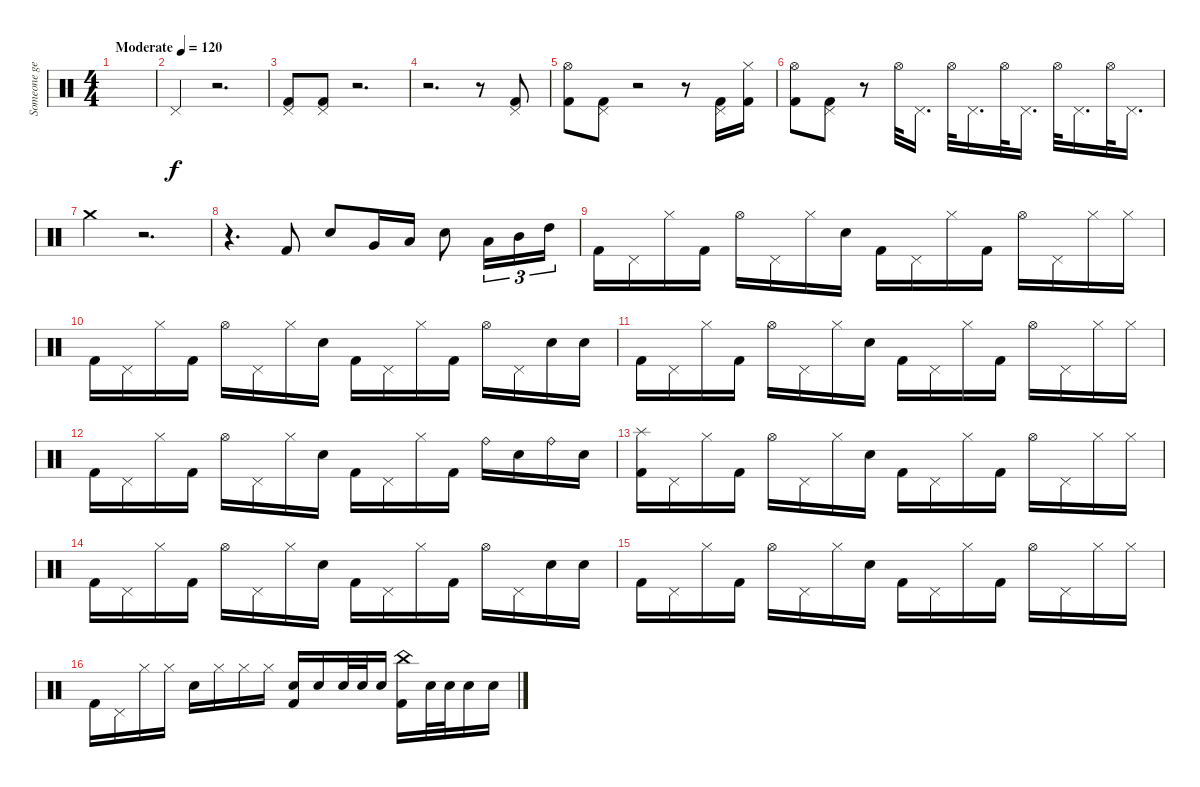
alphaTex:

\track ("Someone get me Neil Peart" "Someone ge") {instrument percussion}
\staff {score}
\articulation defaults
\ts (4 4)
\tempo (120 "Moderate")
\clef neutral
\ks c
|
"Pedal Hi-Hat (hit)".4 r.2{d} |
("Pedal Hi-Hat (hit)" "Kick (hit) 2").8 ("Pedal Hi-Hat (hit)" "Kick (hit) 2").8 r.2{d} |
r.2{d} r.8 ("Pedal Hi-Hat (hit)" "Kick (hit) 2").8 |
("Hi-Hat (open)" "Kick (hit) 2").8 ("Pedal Hi-Hat (hit)" "Kick (hit) 2").8 r.2 r.8 ("Pedal Hi-Hat (hit)" "Kick (hit) 2").16 ("Hi-Hat (closed)" "Kick (hit) 2").16 |
("Hi-Hat (open)" "Kick (hit) 2").8 ("Pedal Hi-Hat (hit)" "Kick (hit) 2").8 r.8 "Hi-Hat (open)".32 "Pedal Hi-Hat (hit)".16{d} "Hi-Hat (open)".32 "Pedal Hi-Hat (hit)".16{d} "Hi-Hat (open)".32 "Pedal Hi-Hat (hit)".16{d} "Hi-Hat (open)".32 "Pedal Hi-Hat (hit)".16{d} "Hi-Hat (open)".32 "Pedal Hi-Hat (hit)".16{d} |
"Crash medium (hit)".4 r.2{d} |
r.4{d} "Kick (hit) 2".8 "Snare (hit) 2".8 "Very Low Tom (hit)".16 "Low Tom (hit)".16 "Snare (hit) 2".8 "Low Tom (hit)".16{tu (3 2)} "Mid Tom (hit)".16{tu (3 2)} "High Tom (hit)".16{tu (3 2)} |
"Kick (hit) 2".16 "Pedal Hi-Hat (hit)".16 "Hi-Hat (closed)".16 "Kick (hit) 2".16 "Hi-Hat (open)".16 "Pedal Hi-Hat (hit)".16 "Hi-Hat (closed)".16 "Snare (hit) 2".16 "Kick (hit) 2".16 "Pedal Hi-Hat (hit)".16 "Hi-Hat (closed)".16 "Kick (hit) 2".16 "Hi-Hat (open)".16 "Pedal Hi-Hat (hit)".16 "Hi-Hat (closed)".16 "Hi-Hat (closed)".16 |
"Kick (hit) 2".16 "Pedal Hi-Hat (hit)".16 "Hi-Hat (closed)".16 "Kick (hit) 2".16 "Hi-Hat (open)".16 "Pedal Hi-Hat (hit)".16 "Hi-Hat (closed)".16 "Snare (hit) 2".16 "Kick (hit) 2".16 "Pedal Hi-Hat (hit)".16 "Hi-Hat (closed)".16 "Kick (hit) 2".16 "Hi-Hat (open)".16 "Pedal Hi-Hat (hit)".16 "Snare (hit) 2".16 "Snare (hit) 2".16 |
"Kick (hit) 2".16 "Pedal Hi-Hat (hit)".16 "Hi-Hat (closed)".16 "Kick (hit) 2".16 "Hi-Hat (open)".16 "Pedal Hi-Hat (hit)".16 "Hi-Hat (closed)".16 "Snare (hit) 2".16 "Kick (hit) 2".16 "Pedal Hi-Hat (hit)".16 "Hi-Hat (closed)".16 "Kick (hit) 2".16 "Hi-Hat (open)".16 "Pedal Hi-Hat (hit)".16 "Hi-Hat (closed)".16 "Hi-Hat (closed)".16 |
"Kick (hit) 2".16 "Pedal Hi-Hat (hit)".16 "Hi-Hat (closed)".16 "Kick (hit) 2".16 "Hi-Hat (open)".16 "Pedal Hi-Hat (hit)".16 "Hi-Hat (closed)".16 "Snare (hit) 2".16 "Kick (hit) 2".16 "Pedal Hi-Hat (hit)".16 "Hi-Hat (closed)".16 "Kick (hit) 2".16 "Ride (bell)".16 "Snare (hit) 2".16 "Ride (bell)".16 "Snare (hit) 2".16 |
("Splash (hit)" "Kick (hit) 2").16 "Pedal Hi-Hat (hit)".16 "Hi-Hat (closed)".16 "Kick (hit) 2".16 "Hi-Hat (open)".16 "Pedal Hi-Hat (hit)".16 "Hi-Hat (closed)".16 "Snare (hit) 2".16 "Kick (hit) 2".16 "Pedal Hi-Hat (hit)".16 "Hi-Hat (closed)".16 "Kick (hit) 2".16 "Hi-Hat (open)".16 "Pedal Hi-Hat (hit)".16 "Hi-Hat (closed)".16 "Hi-Hat (closed)".16 |
"Kick (hit) 2".16 "Pedal Hi-Hat (hit)".16 "Hi-Hat (closed)".16 "Kick (hit) 2".16 "Hi-Hat (open)".16 "Pedal Hi-Hat (hit)".16 "Hi-Hat (closed)".16 "Snare (hit) 2".16 "Kick (hit) 2".16 "Pedal Hi-Hat (hit)".16 "Hi-Hat (closed)".16 "Kick (hit) 2".16 "Hi-Hat (open)".16 "Pedal Hi-Hat (hit)".16 "Snare (hit) 2".16 "Snare (hit) 2".16 |
"Kick (hit) 2".16 "Pedal Hi-Hat (hit)".16 "Hi-Hat (closed)".16 "Kick (hit) 2".16 "Hi-Hat (open)".16 "Pedal Hi-Hat (hit)".16 "Hi-Hat (closed)".16 "Snare (hit) 2".16 "Kick (hit) 2".16 "Pedal Hi-Hat (hit)".16 "Hi-Hat (closed)".16 "Kick (hit) 2".16 "Hi-Hat (open)".16 "Pedal Hi-Hat (hit)".16 "Hi-Hat (closed)".16 "Hi-Hat (closed)".16 |
"Kick (hit) 2".16 "Pedal Hi-Hat (hit)".16 "Hi-Hat (closed)".16 "Hi-Hat (closed)".16 "Snare (hit) 2".16 "Hi-Hat (closed)".16 "Hi-Hat (closed)".16 "Hi-Hat (closed)".16 ("Snare (hit) 2" "Kick (hit) 2").16 "Snare (hit) 2".16 "Snare (hit) 2".32 "Snare (hit) 2".32 "Snare (hit) 2".16 ("China (hit)" "Kick (hit) 2").16 "Snare (hit) 2".32 "Snare (hit) 2".32 "Snare (hit) 2".16 "Snare (hit) 2".16
